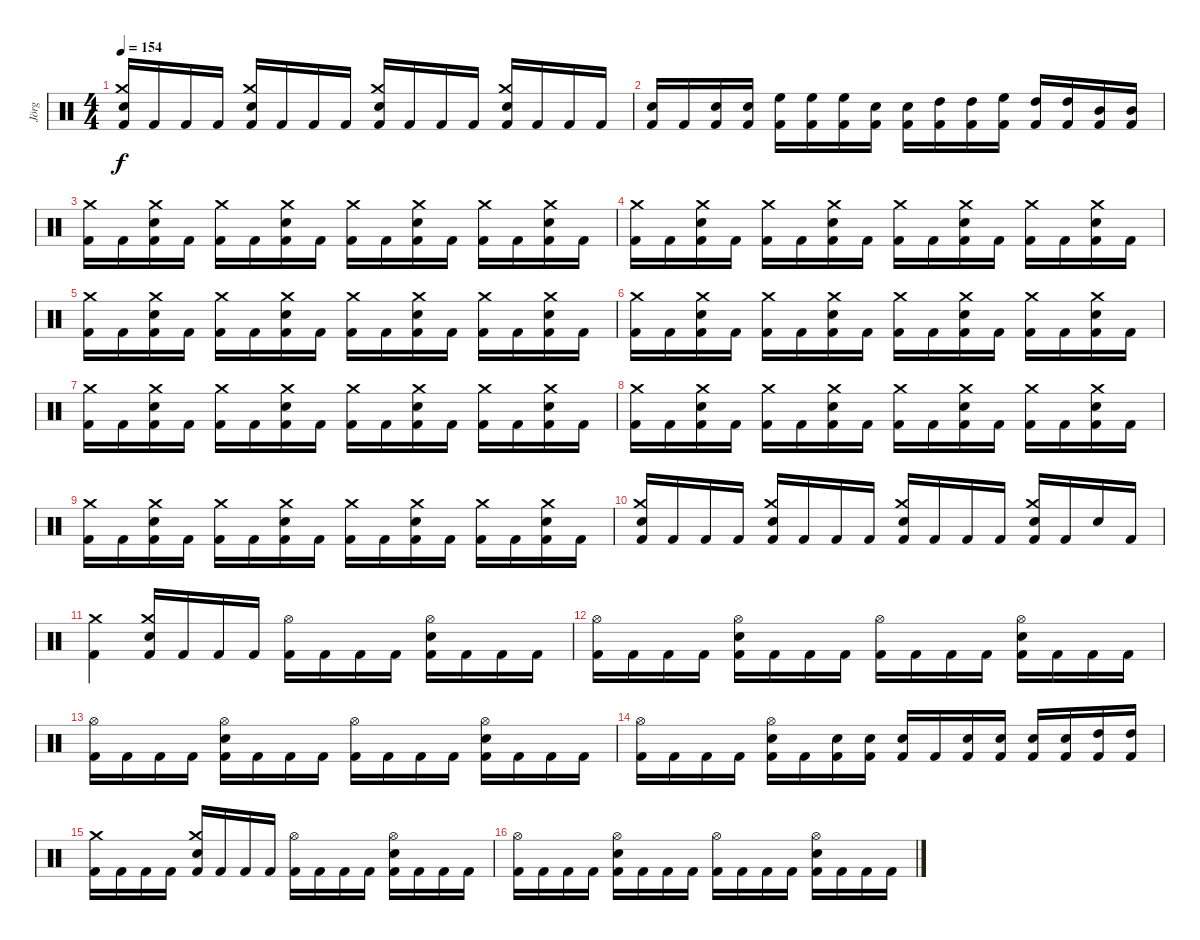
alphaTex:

\track ("Jörg" "Jörg") {instrument percussion}
\staff {score}
\articulation defaults
\ts (4 4)
\tempo 154
\clef neutral
\ks c
("Snare (hit) 2" "Crash medium (hit)" "Kick (hit) 2").16{dy f} "Kick (hit) 2".16 "Kick (hit) 2".16 "Kick (hit) 2".16 ("Snare (hit) 2" "Crash medium (hit)" "Kick (hit) 2").16 "Kick (hit) 2".16 "Kick (hit) 2".16 "Kick (hit) 2".16 ("Snare (hit) 2" "Crash medium (hit)" "Kick (hit) 2").16 "Kick (hit) 2".16 "Kick (hit) 2".16 "Kick (hit) 2".16 ("Snare (hit) 2" "Crash medium (hit)" "Kick (hit) 2").16 "Kick (hit) 2".16 "Kick (hit) 2".16 "Kick (hit) 2".16 |
("Snare (hit) 2" "Kick (hit) 2").16 "Kick (hit) 2".16 ("Snare (hit) 2" "Kick (hit) 2").16 ("Snare (hit) 2" "Kick (hit) 2").16 ("High Floor Tom (hit)" "Kick (hit) 2").16 ("High Floor Tom (hit)" "Kick (hit) 2").16 ("High Floor Tom (hit)" "Kick (hit) 2").16 ("Snare (hit) 2" "Kick (hit) 2").16 ("Snare (hit) 2" "Kick (hit) 2").16 ("High Tom (hit)" "Kick (hit) 2").16 ("High Tom (hit)" "Kick (hit) 2").16 ("High Floor Tom (hit)" "Kick (hit) 2").16 ("High Tom (hit)" "Kick (hit) 2").16 ("High Tom (hit)" "Kick (hit) 2").16 ("Mid Tom (hit)" "Kick (hit) 2").16 ("Mid Tom (hit)" "Kick (hit) 2").16 |
("Crash medium (hit)" "Kick (hit) 2").16 "Kick (hit) 2".16 ("Snare (hit) 2" "Crash medium (hit)" "Kick (hit) 2").16 "Kick (hit) 2".16 ("Crash medium (hit)" "Kick (hit) 2").16 "Kick (hit) 2".16 ("Snare (hit) 2" "Crash medium (hit)" "Kick (hit) 2").16 "Kick (hit) 2".16 ("Crash medium (hit)" "Kick (hit) 2").16 "Kick (hit) 2".16 ("Snare (hit) 2" "Crash medium (hit)" "Kick (hit) 2").16 "Kick (hit) 2".16 ("Crash medium (hit)" "Kick (hit) 2").16 "Kick (hit) 2".16 ("Snare (hit) 2" "Crash medium (hit)" "Kick (hit) 2").16 "Kick (hit) 2".16 |
("Crash medium (hit)" "Kick (hit) 2").16 "Kick (hit) 2".16 ("Snare (hit) 2" "Crash medium (hit)" "Kick (hit) 2").16 "Kick (hit) 2".16 ("Crash medium (hit)" "Kick (hit) 2").16 "Kick (hit) 2".16 ("Snare (hit) 2" "Crash medium (hit)" "Kick (hit) 2").16 "Kick (hit) 2".16 ("Crash medium (hit)" "Kick (hit) 2").16 "Kick (hit) 2".16 ("Snare (hit) 2" "Crash medium (hit)" "Kick (hit) 2").16 "Kick (hit) 2".16 ("Crash medium (hit)" "Kick (hit) 2").16 "Kick (hit) 2".16 ("Snare (hit) 2" "Crash medium (hit)" "Kick (hit) 2").16 "Kick (hit) 2".16 |
("Crash medium (hit)" "Kick (hit) 2").16 "Kick (hit) 2".16 ("Snare (hit) 2" "Crash medium (hit)" "Kick (hit) 2").16 "Kick (hit) 2".16 ("Crash medium (hit)" "Kick (hit) 2").16 "Kick (hit) 2".16 ("Snare (hit) 2" "Crash medium (hit)" "Kick (hit) 2").16 "Kick (hit) 2".16 ("Crash medium (hit)" "Kick (hit) 2").16 "Kick (hit) 2".16 ("Snare (hit) 2" "Crash medium (hit)" "Kick (hit) 2").16 "Kick (hit) 2".16 ("Crash medium (hit)" "Kick (hit) 2").16 "Kick (hit) 2".16 ("Snare (hit) 2" "Crash medium (hit)" "Kick (hit) 2").16 "Kick (hit) 2".16 |
("Crash medium (hit)" "Kick (hit) 2").16 "Kick (hit) 2".16 ("Snare (hit) 2" "Crash medium (hit)" "Kick (hit) 2").16 "Kick (hit) 2".16 ("Crash medium (hit)" "Kick (hit) 2").16 "Kick (hit) 2".16 ("Snare (hit) 2" "Crash medium (hit)" "Kick (hit) 2").16 "Kick (hit) 2".16 ("Crash medium (hit)" "Kick (hit) 2").16 "Kick (hit) 2".16 ("Snare (hit) 2" "Crash medium (hit)" "Kick (hit) 2").16 "Kick (hit) 2".16 ("Crash medium (hit)" "Kick (hit) 2").16 "Kick (hit) 2".16 ("Snare (hit) 2" "Crash medium (hit)" "Kick (hit) 2").16 "Kick (hit) 2".16 |
("Crash medium (hit)" "Kick (hit) 2").16 "Kick (hit) 2".16 ("Snare (hit) 2" "Crash medium (hit)" "Kick (hit) 2").16 "Kick (hit) 2".16 ("Crash medium (hit)" "Kick (hit) 2").16 "Kick (hit) 2".16 ("Snare (hit) 2" "Crash medium (hit)" "Kick (hit) 2").16 "Kick (hit) 2".16 ("Crash medium (hit)" "Kick (hit) 2").16 "Kick (hit) 2".16 ("Snare (hit) 2" "Crash medium (hit)" "Kick (hit) 2").16 "Kick (hit) 2".16 ("Crash medium (hit)" "Kick (hit) 2").16 "Kick (hit) 2".16 ("Snare (hit) 2" "Crash medium (hit)" "Kick (hit) 2").16 "Kick (hit) 2".16 |
("Crash medium (hit)" "Kick (hit) 2").16 "Kick (hit) 2".16 ("Snare (hit) 2" "Crash medium (hit)" "Kick (hit) 2").16 "Kick (hit) 2".16 ("Crash medium (hit)" "Kick (hit) 2").16 "Kick (hit) 2".16 ("Snare (hit) 2" "Crash medium (hit)" "Kick (hit) 2").16 "Kick (hit) 2".16 ("Crash medium (hit)" "Kick (hit) 2").16 "Kick (hit) 2".16 ("Snare (hit) 2" "Crash medium (hit)" "Kick (hit) 2").16 "Kick (hit) 2".16 ("Crash medium (hit)" "Kick (hit) 2").16 "Kick (hit) 2".16 ("Snare (hit) 2" "Crash medium (hit)" "Kick (hit) 2").16 "Kick (hit) 2".16 |
("Crash medium (hit)" "Kick (hit) 2").16 "Kick (hit) 2".16 ("Snare (hit) 2" "Crash medium (hit)" "Kick (hit) 2").16 "Kick (hit) 2".16 ("Crash medium (hit)" "Kick (hit) 2").16 "Kick (hit) 2".16 ("Snare (hit) 2" "Crash medium (hit)" "Kick (hit) 2").16 "Kick (hit) 2".16 ("Crash medium (hit)" "Kick (hit) 2").16 "Kick (hit) 2".16 ("Snare (hit) 2" "Crash medium (hit)" "Kick (hit) 2").16 "Kick (hit) 2".16 ("Crash medium (hit)" "Kick (hit) 2").16 "Kick (hit) 2".16 ("Snare (hit) 2" "Crash medium (hit)" "Kick (hit) 2").16 "Kick (hit) 2".16 |
("Snare (hit) 2" "Crash medium (hit)" "Kick (hit) 2").16 "Kick (hit) 2".16 "Kick (hit) 2".16 "Kick (hit) 2".16 ("Snare (hit) 2" "Crash medium (hit)" "Kick (hit) 2").16 "Kick (hit) 2".16 "Kick (hit) 2".16 "Kick (hit) 2".16 ("Snare (hit) 2" "Crash medium (hit)" "Kick (hit) 2").16 "Kick (hit) 2".16 "Kick (hit) 2".16 "Kick (hit) 2".16 ("Snare (hit) 2" "Crash medium (hit)" "Kick (hit) 2").16 "Kick (hit) 2".16 "Snare (hit) 2".16 "Kick (hit) 2".16 |
("Crash medium (hit)" "Kick (hit) 2").4 ("Kick (hit) 2" "Snare (hit) 2" "Crash medium (hit)").16 "Kick (hit) 2".16 "Kick (hit) 2".16 "Kick (hit) 2".16 ("Hi-Hat (open)" "Kick (hit) 2").16 "Kick (hit) 2".16 "Kick (hit) 2".16 "Kick (hit) 2".16 ("Snare (hit) 2" "Hi-Hat (open)" "Kick (hit) 2").16 "Kick (hit) 2".16 "Kick (hit) 2".16 "Kick (hit) 2".16 |
("Hi-Hat (open)" "Kick (hit) 2").16 "Kick (hit) 2".16 "Kick (hit) 2".16 "Kick (hit) 2".16 ("Snare (hit) 2" "Hi-Hat (open)" "Kick (hit) 2").16 "Kick (hit) 2".16 "Kick (hit) 2".16 "Kick (hit) 2".16 ("Hi-Hat (open)" "Kick (hit) 2").16 "Kick (hit) 2".16 "Kick (hit) 2".16 "Kick (hit) 2".16 ("Snare (hit) 2" "Hi-Hat (open)" "Kick (hit) 2").16 "Kick (hit) 2".16 "Kick (hit) 2".16 "Kick (hit) 2".16 |
("Hi-Hat (open)" "Kick (hit) 2").16 "Kick (hit) 2".16 "Kick (hit) 2".16 "Kick (hit) 2".16 ("Snare (hit) 2" "Hi-Hat (open)" "Kick (hit) 2").16 "Kick (hit) 2".16 "Kick (hit) 2".16 "Kick (hit) 2".16 ("Hi-Hat (open)" "Kick (hit) 2").16 "Kick (hit) 2".16 "Kick (hit) 2".16 "Kick (hit) 2".16 ("Snare (hit) 2" "Hi-Hat (open)" "Kick (hit) 2").16 "Kick (hit) 2".16 "Kick (hit) 2".16 "Kick (hit) 2".16 |
("Hi-Hat (open)" "Kick (hit) 2").16 "Kick (hit) 2".16 "Kick (hit) 2".16 "Kick (hit) 2".16 ("Hi-Hat (open)" "Snare (hit) 2" "Kick (hit) 2").16 "Kick (hit) 2".16 ("Snare (hit) 2" "Kick (hit) 2").16 ("Snare (hit) 2" "Kick (hit) 2").16 ("Snare (hit) 2" "Kick (hit) 2").16 "Kick (hit) 2".16 ("Snare (hit) 2" "Kick (hit) 2").16 ("Snare (hit) 2" "Kick (hit) 2").16 ("Snare (hit) 2" "Kick (hit) 2").16 ("Snare (hit) 2" "Kick (hit) 2").16 ("High Tom (hit)" "Kick (hit) 2").16 ("High Tom (hit)" "Kick (hit) 2").16 |
("Crash medium (hit)" "Kick (hit) 2").16 "Kick (hit) 2".16 "Kick (hit) 2".16 "Kick (hit) 2".16 ("Crash medium (hit)" "Snare (hit) 2" "Kick (hit) 2").16 "Kick (hit) 2".16 "Kick (hit) 2".16 "Kick (hit) 2".16 ("Hi-Hat (open)" "Kick (hit) 2").16 "Kick (hit) 2".16 "Kick (hit) 2".16 "Kick (hit) 2".16 ("Snare (hit) 2" "Hi-Hat (open)" "Kick (hit) 2").16 "Kick (hit) 2".16 "Kick (hit) 2".16 "Kick (hit) 2".16 |
("Hi-Hat (open)" "Kick (hit) 2").16 "Kick (hit) 2".16 "Kick (hit) 2".16 "Kick (hit) 2".16 ("Snare (hit) 2" "Hi-Hat (open)" "Kick (hit) 2").16 "Kick (hit) 2".16 "Kick (hit) 2".16 "Kick (hit) 2".16 ("Hi-Hat (open)" "Kick (hit) 2").16 "Kick (hit) 2".16 "Kick (hit) 2".16 "Kick (hit) 2".16 ("Snare (hit) 2" "Hi-Hat (open)" "Kick (hit) 2").16 "Kick (hit) 2".16 "Kick (hit) 2".16 "Kick (hit) 2".16
